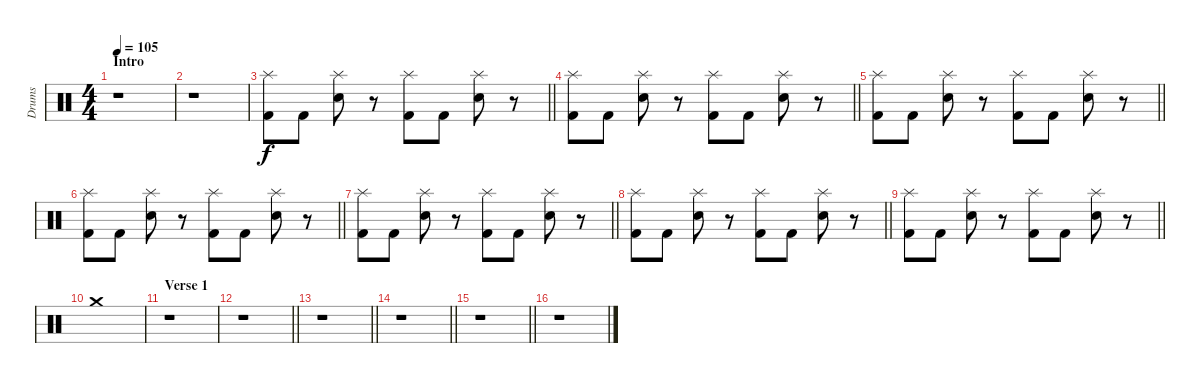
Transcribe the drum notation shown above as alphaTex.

\track ("Drums" "Drums") {instrument percussion}
\staff {score}
\articulation defaults
\ts (4 4)
\section ("" "Intro")
\tempo 105
\clef neutral
\ks c
r.1{dy f} |
r.1 |
\barLineRight lightlight
("Splash (hit)" "Kick (hit) 2").8 "Kick (hit) 2".8 ("Splash (hit)" "Electric Snare (hit)").8 r.8 ("Splash (hit)" "Kick (hit) 2").8 "Kick (hit) 2".8 ("Splash (hit)" "Electric Snare (hit)").8 r.8 |
\barLineRight lightlight
("Splash (hit)" "Kick (hit) 2").8 "Kick (hit) 2".8 ("Splash (hit)" "Electric Snare (hit)").8 r.8 ("Splash (hit)" "Kick (hit) 2").8 "Kick (hit) 2".8 ("Splash (hit)" "Electric Snare (hit)").8 r.8 |
\barLineRight lightlight
("Splash (hit)" "Kick (hit) 2").8 "Kick (hit) 2".8 ("Splash (hit)" "Electric Snare (hit)").8 r.8 ("Splash (hit)" "Kick (hit) 2").8 "Kick (hit) 2".8 ("Splash (hit)" "Electric Snare (hit)").8 r.8 |
\barLineRight lightlight
("Splash (hit)" "Kick (hit) 2").8 "Kick (hit) 2".8 ("Splash (hit)" "Electric Snare (hit)").8 r.8 ("Splash (hit)" "Kick (hit) 2").8 "Kick (hit) 2".8 ("Splash (hit)" "Electric Snare (hit)").8 r.8 |
\barLineRight lightlight
("Splash (hit)" "Kick (hit) 2").8 "Kick (hit) 2".8 ("Splash (hit)" "Electric Snare (hit)").8 r.8 ("Splash (hit)" "Kick (hit) 2").8 "Kick (hit) 2".8 ("Splash (hit)" "Electric Snare (hit)").8 r.8 |
\barLineRight lightlight
("Splash (hit)" "Kick (hit) 2").8 "Kick (hit) 2".8 ("Splash (hit)" "Electric Snare (hit)").8 r.8 ("Splash (hit)" "Kick (hit) 2").8 "Kick (hit) 2".8 ("Splash (hit)" "Electric Snare (hit)").8 r.8 |
\barLineRight lightlight
("Splash (hit)" "Kick (hit) 2").8 "Kick (hit) 2".8 ("Splash (hit)" "Electric Snare (hit)").8 r.8 ("Splash (hit)" "Kick (hit) 2").8 "Kick (hit) 2".8 ("Splash (hit)" "Electric Snare (hit)").8 r.8 |
"Crash medium (hit)".1 |
\section ("" "Verse 1")
r.1 |
\barLineRight lightlight
r.1 |
\barLineRight lightlight
r.1 |
\barLineRight lightlight
r.1 |
\barLineRight lightlight
r.1 |
r.1
